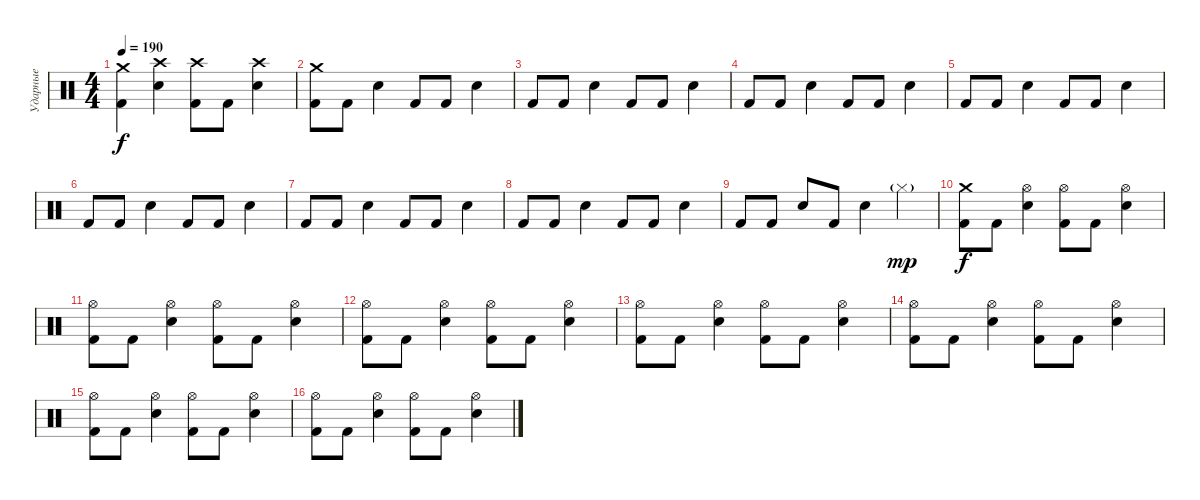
\track ("Ударные" "Ударные") {instrument percussion}
\staff {score}
\articulation defaults
\ts (4 4)
\tempo 190
\clef neutral
\ks c
("Crash medium (hit)" "Kick (hit) 2").4{dy f} ("Crash high (hit)" "Snare (hit) 2").4 ("Crash high (hit)" "Kick (hit) 2").8 "Kick (hit) 2".8 ("Crash high (hit)" "Snare (hit) 2").4 |
("Crash medium (hit)" "Kick (hit) 2").8 "Kick (hit) 2".8 "Snare (hit) 2".4 "Kick (hit) 2".8 "Kick (hit) 2".8 "Snare (hit) 2".4 |
"Kick (hit) 2".8 "Kick (hit) 2".8 "Snare (hit) 2".4 "Kick (hit) 2".8 "Kick (hit) 2".8 "Snare (hit) 2".4 |
"Kick (hit) 2".8 "Kick (hit) 2".8 "Snare (hit) 2".4 "Kick (hit) 2".8 "Kick (hit) 2".8 "Snare (hit) 2".4 |
"Kick (hit) 2".8 "Kick (hit) 2".8 "Snare (hit) 2".4 "Kick (hit) 2".8 "Kick (hit) 2".8 "Snare (hit) 2".4 |
"Kick (hit) 2".8 "Kick (hit) 2".8 "Snare (hit) 2".4 "Kick (hit) 2".8 "Kick (hit) 2".8 "Snare (hit) 2".4 |
"Kick (hit) 2".8 "Kick (hit) 2".8 "Snare (hit) 2".4 "Kick (hit) 2".8 "Kick (hit) 2".8 "Snare (hit) 2".4 |
"Kick (hit) 2".8 "Kick (hit) 2".8 "Snare (hit) 2".4 "Kick (hit) 2".8 "Kick (hit) 2".8 "Snare (hit) 2".4 |
"Kick (hit) 2".8 "Kick (hit) 2".8 "Snare (hit) 2".8 "Kick (hit) 2".8 "Snare (hit) 2".4 "Hi-Hat (closed)"{g}.4{dy mp} |
("Crash medium (hit)" "Kick (hit) 2").8{dy f} "Kick (hit) 2".8 ("Hi-Hat (open)" "Snare (hit) 2").4 ("Hi-Hat (open)" "Kick (hit) 2").8 "Kick (hit) 2".8 ("Hi-Hat (open)" "Snare (hit) 2").4 |
("Hi-Hat (open)" "Kick (hit) 2").8 "Kick (hit) 2".8 ("Hi-Hat (open)" "Snare (hit) 2").4 ("Hi-Hat (open)" "Kick (hit) 2").8 "Kick (hit) 2".8 ("Hi-Hat (open)" "Snare (hit) 2").4 |
("Hi-Hat (open)" "Kick (hit) 2").8 "Kick (hit) 2".8 ("Hi-Hat (open)" "Snare (hit) 2").4 ("Hi-Hat (open)" "Kick (hit) 2").8 "Kick (hit) 2".8 ("Hi-Hat (open)" "Snare (hit) 2").4 |
("Hi-Hat (open)" "Kick (hit) 2").8 "Kick (hit) 2".8 ("Hi-Hat (open)" "Snare (hit) 2").4 ("Hi-Hat (open)" "Kick (hit) 2").8 "Kick (hit) 2".8 ("Hi-Hat (open)" "Snare (hit) 2").4 |
("Hi-Hat (open)" "Kick (hit) 2").8 "Kick (hit) 2".8 ("Hi-Hat (open)" "Snare (hit) 2").4 ("Hi-Hat (open)" "Kick (hit) 2").8 "Kick (hit) 2".8 ("Hi-Hat (open)" "Snare (hit) 2").4 |
("Hi-Hat (open)" "Kick (hit) 2").8 "Kick (hit) 2".8 ("Hi-Hat (open)" "Snare (hit) 2").4 ("Hi-Hat (open)" "Kick (hit) 2").8 "Kick (hit) 2".8 ("Hi-Hat (open)" "Snare (hit) 2").4 |
("Hi-Hat (open)" "Kick (hit) 2").8 "Kick (hit) 2".8 ("Hi-Hat (open)" "Snare (hit) 2").4 ("Hi-Hat (open)" "Kick (hit) 2").8 "Kick (hit) 2".8 ("Hi-Hat (open)" "Snare (hit) 2").4
